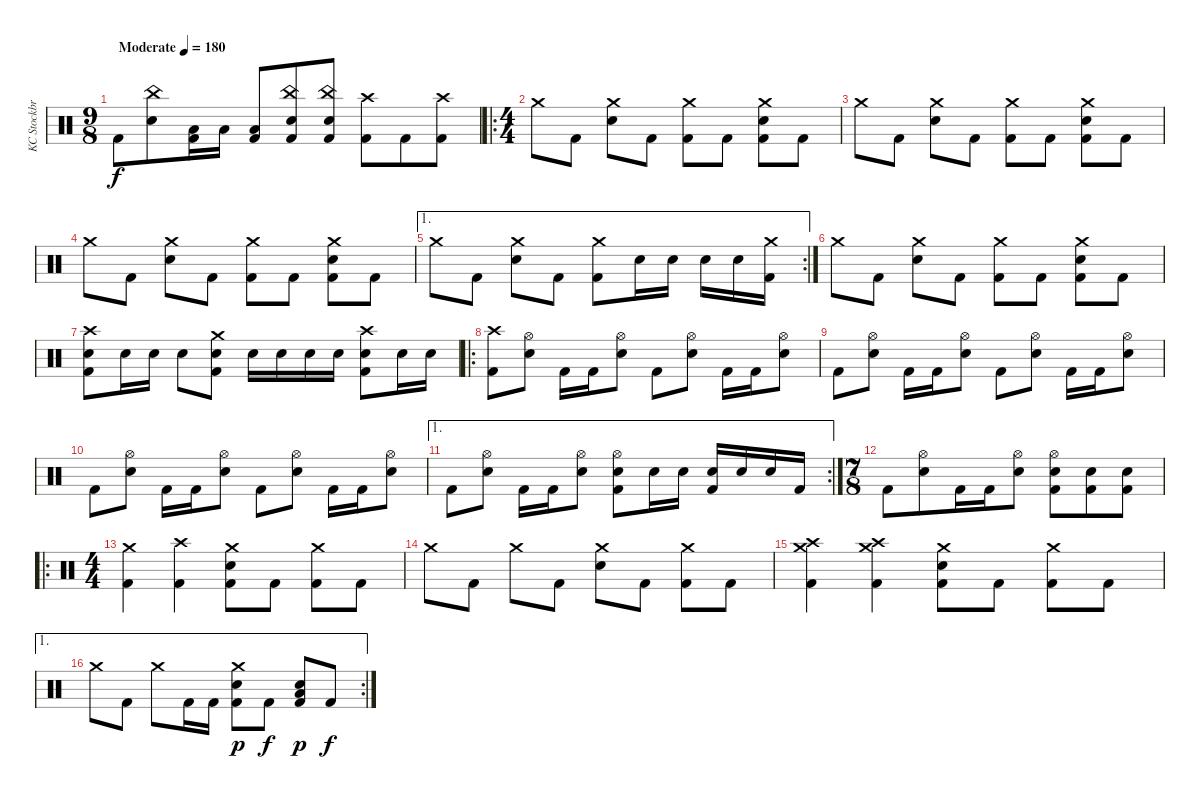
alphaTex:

\track ("KC Stockbridge" "KC Stockbr") {instrument percussion}
\staff {score}
\articulation defaults
\ts (9 8)
\tempo (180 "Moderate")
\clef neutral
\ks c "Kick (hit) 2".8{dy f}
("China (hit)" "Electric Snare (hit)").8 ("Low Tom (hit)" "Kick (hit) 2").16 "Low Tom (hit)".16 ("Low Tom (hit)" "Kick (hit) 2").8 ("China (hit)" "Electric Snare (hit)" "Kick (hit) 2").8 ("China (hit)" "Electric Snare (hit)" "Kick (hit) 2").8 ("Crash high (hit)" "Kick (hit) 2").8 "Kick (hit) 2".8 ("Crash high (hit)" "Kick (hit) 2").8 |
\ro
\ts (4 4)
"Crash medium (hit)".8 "Kick (hit) 2".8 ("Crash medium (hit)" "Electric Snare (hit)").8 "Kick (hit) 2".8 ("Crash medium (hit)" "Kick (hit) 2").8 "Kick (hit) 2".8 ("Crash medium (hit)" "Electric Snare (hit)" "Kick (hit) 2").8 "Kick (hit) 2".8 |
"Crash medium (hit)".8 "Kick (hit) 2".8 ("Crash medium (hit)" "Electric Snare (hit)").8 "Kick (hit) 2".8 ("Crash medium (hit)" "Kick (hit) 2").8 "Kick (hit) 2".8 ("Crash medium (hit)" "Electric Snare (hit)" "Kick (hit) 2").8 "Kick (hit) 2".8 |
"Crash medium (hit)".8 "Kick (hit) 2".8 ("Crash medium (hit)" "Electric Snare (hit)").8 "Kick (hit) 2".8 ("Crash medium (hit)" "Kick (hit) 2").8 "Kick (hit) 2".8 ("Crash medium (hit)" "Electric Snare (hit)" "Kick (hit) 2").8 "Kick (hit) 2".8 |
\ae 1
\rc 2 "Crash medium (hit)".8 "Kick (hit) 2".8
("Crash medium (hit)" "Electric Snare (hit)").8 "Kick (hit) 2".8 ("Crash medium (hit)" "Kick (hit) 2").8 "Electric Snare (hit)".16 "Electric Snare (hit)".16 "Electric Snare (hit)".16 "Electric Snare (hit)".16 ("Crash medium (hit)" "Kick (hit) 2").16 |
"Crash medium (hit)".8 "Kick (hit) 2".8 ("Crash medium (hit)" "Electric Snare (hit)").8 "Kick (hit) 2".8 ("Crash medium (hit)" "Kick (hit) 2").8 "Kick (hit) 2".8 ("Crash medium (hit)" "Electric Snare (hit)" "Kick (hit) 2").8 "Kick (hit) 2".8 |
("Crash high (hit)" "Electric Snare (hit)" "Kick (hit) 2").8 "Electric Snare (hit)".16 "Electric Snare (hit)".16 "Electric Snare (hit)".8 ("Crash medium (hit)" "Electric Snare (hit)" "Kick (hit) 2").8 "Electric Snare (hit)".16 "Electric Snare (hit)".16 "Electric Snare (hit)".16 "Electric Snare (hit)".16 ("Crash high (hit)" "Electric Snare (hit)" "Kick (hit) 2").8 "Electric Snare (hit)".16 "Electric Snare (hit)".16 |
\ro
("Crash high (hit)" "Kick (hit) 2").8 ("Hi-Hat (open)" "Electric Snare (hit)").8 "Kick (hit) 2".16 "Kick (hit) 2".16 ("Hi-Hat (open)" "Electric Snare (hit)").8 "Kick (hit) 2".8 ("Hi-Hat (open)" "Electric Snare (hit)").8 "Kick (hit) 2".16 "Kick (hit) 2".16 ("Hi-Hat (open)" "Electric Snare (hit)").8 |
"Kick (hit) 2".8 ("Hi-Hat (open)" "Electric Snare (hit)").8 "Kick (hit) 2".16 "Kick (hit) 2".16 ("Hi-Hat (open)" "Electric Snare (hit)").8 "Kick (hit) 2".8 ("Hi-Hat (open)" "Electric Snare (hit)").8 "Kick (hit) 2".16 "Kick (hit) 2".16 ("Hi-Hat (open)" "Electric Snare (hit)").8 |
"Kick (hit) 2".8 ("Hi-Hat (open)" "Electric Snare (hit)").8 "Kick (hit) 2".16 "Kick (hit) 2".16 ("Hi-Hat (open)" "Electric Snare (hit)").8 "Kick (hit) 2".8 ("Hi-Hat (open)" "Electric Snare (hit)").8 "Kick (hit) 2".16 "Kick (hit) 2".16 ("Hi-Hat (open)" "Electric Snare (hit)").8 |
\ae 1
\rc 2 "Kick (hit) 2".8
("Hi-Hat (open)" "Electric Snare (hit)").8 "Kick (hit) 2".16 "Kick (hit) 2".16 ("Hi-Hat (open)" "Electric Snare (hit)").8 ("Hi-Hat (open)" "Electric Snare (hit)" "Kick (hit) 2").8 "Electric Snare (hit)".16 "Electric Snare (hit)".16 ("Electric Snare (hit)" "Kick (hit) 2").16 "Electric Snare (hit)".16 "Electric Snare (hit)".16 "Kick (hit) 2".16 |
\ts (7 8)
"Kick (hit) 2".8 ("Hi-Hat (open)" "Electric Snare (hit)").8 "Kick (hit) 2".16 "Kick (hit) 2".16 ("Hi-Hat (open)" "Electric Snare (hit)").8 ("Hi-Hat (open)" "Electric Snare (hit)" "Kick (hit) 2").8 ("Electric Snare (hit)" "Kick (hit) 2").8 ("Electric Snare (hit)" "Kick (hit) 2").8 |
\ro
\ts (4 4)
("Crash medium (hit)" "Kick (hit) 2").4 ("Crash high (hit)" "Kick (hit) 2").4 ("Crash medium (hit)" "Electric Snare (hit)" "Kick (hit) 2").8 "Kick (hit) 2".8 ("Crash medium (hit)" "Kick (hit) 2").8 "Kick (hit) 2".8 |
"Crash medium (hit)".8 "Kick (hit) 2".8 "Crash medium (hit)".8 "Kick (hit) 2".8 ("Crash medium (hit)" "Electric Snare (hit)").8 "Kick (hit) 2".8 ("Crash medium (hit)" "Kick (hit) 2").8 "Kick (hit) 2".8 |
("Crash medium (hit)" "Crash high (hit)" "Kick (hit) 2").4 ("Crash medium (hit)" "Crash high (hit)" "Kick (hit) 2").4 ("Crash medium (hit)" "Electric Snare (hit)" "Kick (hit) 2").8 "Kick (hit) 2".8 ("Crash medium (hit)" "Kick (hit) 2").8 "Kick (hit) 2".8 |
\ae 1
\rc 2 "Crash medium (hit)".8 "Kick (hit) 2".8 "Crash medium (hit)".8 "Kick (hit) 2".16 "Kick (hit) 2".16
("Crash medium (hit)" "Electric Snare (hit)" "Kick (hit) 2").8{dy p} "Kick (hit) 2".8{dy f} ("Low Tom (hit)" "Electric Snare (hit)" "Kick (hit) 2").8{dy p} "Kick (hit) 2".8{dy f}
